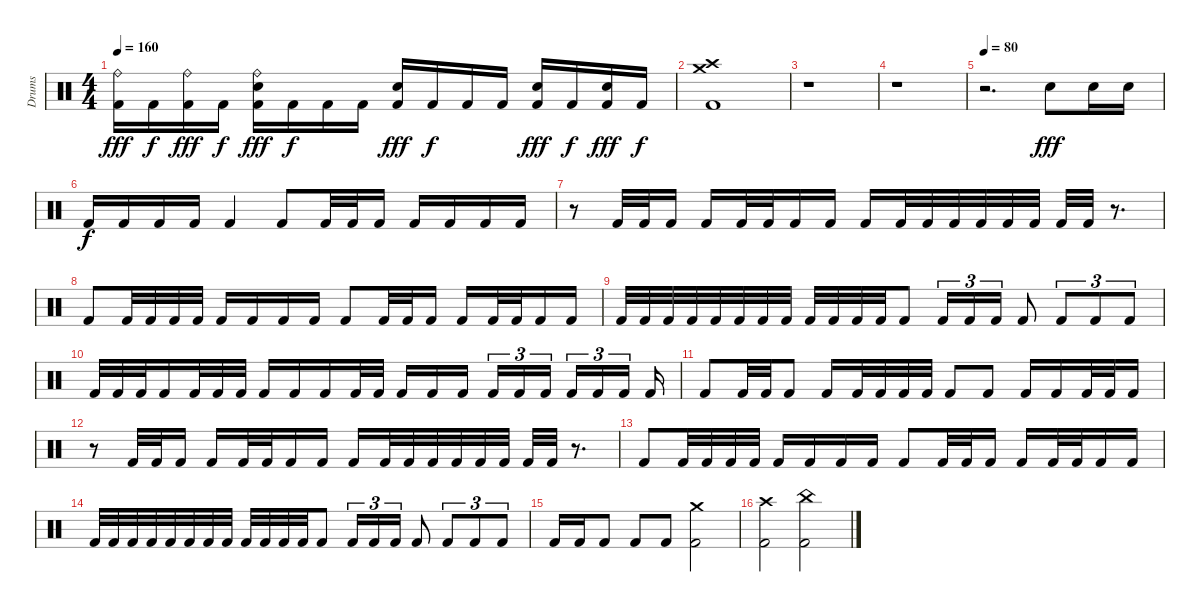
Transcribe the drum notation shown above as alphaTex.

\track ("Drums" "Drums") {instrument percussion}
\staff {score}
\articulation defaults
\ts (4 4)
\tempo 160
\clef neutral
\ks c
("Ride (bell)" "Kick (hit) 2").16{dy fff} "Kick (hit) 2".16{dy f} ("Ride (bell)" "Kick (hit) 2").16{dy fff} "Kick (hit) 2".16{dy f} ("Ride (bell)" "Electric Snare (hit)" "Kick (hit) 2").16{dy fff} "Kick (hit) 2".16{dy f} "Kick (hit) 2".16 "Kick (hit) 2".16 ("Electric Snare (hit)" "Kick (hit) 2").16{dy fff} "Kick (hit) 2".16{dy f} "Kick (hit) 2".16 "Kick (hit) 2".16 ("Electric Snare (hit)" "Kick (hit) 2").16{dy fff} "Kick (hit) 2".16{dy f} ("Electric Snare (hit)" "Kick (hit) 2").16{dy fff} "Kick (hit) 2".16{dy f} |
("Crash high (hit)" "Crash medium (hit)" "Kick (hit) 2").1 |
r.1 |
r.1 |
\tempo 80
r.2{d} "Electric Snare (hit)".8{dy fff} "Electric Snare (hit)".16 "Electric Snare (hit)".16 |
"Kick (hit) 2".16{dy f} "Kick (hit) 2".16 "Kick (hit) 2".16 "Kick (hit) 2".16 "Kick (hit) 2".4 "Kick (hit) 2".8 "Kick (hit) 2".32 "Kick (hit) 2".32 "Kick (hit) 2".16 "Kick (hit) 2".16 "Kick (hit) 2".16 "Kick (hit) 2".16 "Kick (hit) 2".16 |
r.8 "Kick (hit) 2".32 "Kick (hit) 2".32 "Kick (hit) 2".16 "Kick (hit) 2".16 "Kick (hit) 2".32 "Kick (hit) 2".32 "Kick (hit) 2".16 "Kick (hit) 2".16 "Kick (hit) 2".16 "Kick (hit) 2".32 "Kick (hit) 2".32 "Kick (hit) 2".32 "Kick (hit) 2".32 "Kick (hit) 2".32 "Kick (hit) 2".32 "Kick (hit) 2".32 "Kick (hit) 2".32 r.8{d} |
"Kick (hit) 2".8 "Kick (hit) 2".32 "Kick (hit) 2".32 "Kick (hit) 2".32 "Kick (hit) 2".32 "Kick (hit) 2".16 "Kick (hit) 2".16 "Kick (hit) 2".16 "Kick (hit) 2".16 "Kick (hit) 2".8 "Kick (hit) 2".32 "Kick (hit) 2".32 "Kick (hit) 2".16 "Kick (hit) 2".16 "Kick (hit) 2".32 "Kick (hit) 2".32 "Kick (hit) 2".16 "Kick (hit) 2".16 |
"Kick (hit) 2".32 "Kick (hit) 2".32 "Kick (hit) 2".32 "Kick (hit) 2".32 "Kick (hit) 2".32 "Kick (hit) 2".32 "Kick (hit) 2".32 "Kick (hit) 2".32 "Kick (hit) 2".32 "Kick (hit) 2".32 "Kick (hit) 2".32 "Kick (hit) 2".32 "Kick (hit) 2".8 "Kick (hit) 2".16{tu (3 2)} "Kick (hit) 2".16{tu (3 2)} "Kick (hit) 2".16{tu (3 2)} "Kick (hit) 2".8 "Kick (hit) 2".8{tu (3 2)} "Kick (hit) 2".8{tu (3 2)} "Kick (hit) 2".8{tu (3 2)} |
"Kick (hit) 2".32 "Kick (hit) 2".32 "Kick (hit) 2".32 "Kick (hit) 2".16 "Kick (hit) 2".32 "Kick (hit) 2".32 "Kick (hit) 2".32 "Kick (hit) 2".16 "Kick (hit) 2".16 "Kick (hit) 2".16 "Kick (hit) 2".32 "Kick (hit) 2".32 "Kick (hit) 2".16 "Kick (hit) 2".16 "Kick (hit) 2".16 "Kick (hit) 2".16{tu (3 2)} "Kick (hit) 2".16{tu (3 2)} "Kick (hit) 2".16{tu (3 2)} "Kick (hit) 2".16{tu (3 2)} "Kick (hit) 2".16{tu (3 2)} "Kick (hit) 2".16{tu (3 2)} "Kick (hit) 2".16 |
"Kick (hit) 2".8 "Kick (hit) 2".32 "Kick (hit) 2".32 "Kick (hit) 2".8 "Kick (hit) 2".16 "Kick (hit) 2".32 "Kick (hit) 2".32 "Kick (hit) 2".32 "Kick (hit) 2".32 "Kick (hit) 2".8 "Kick (hit) 2".8 "Kick (hit) 2".16 "Kick (hit) 2".16 "Kick (hit) 2".32 "Kick (hit) 2".32 "Kick (hit) 2".16 |
r.8 "Kick (hit) 2".32 "Kick (hit) 2".32 "Kick (hit) 2".16 "Kick (hit) 2".16 "Kick (hit) 2".32 "Kick (hit) 2".32 "Kick (hit) 2".16 "Kick (hit) 2".16 "Kick (hit) 2".16 "Kick (hit) 2".32 "Kick (hit) 2".32 "Kick (hit) 2".32 "Kick (hit) 2".32 "Kick (hit) 2".32 "Kick (hit) 2".32 "Kick (hit) 2".32 "Kick (hit) 2".32 r.8{d} |
"Kick (hit) 2".8 "Kick (hit) 2".32 "Kick (hit) 2".32 "Kick (hit) 2".32 "Kick (hit) 2".32 "Kick (hit) 2".16 "Kick (hit) 2".16 "Kick (hit) 2".16 "Kick (hit) 2".16 "Kick (hit) 2".8 "Kick (hit) 2".32 "Kick (hit) 2".32 "Kick (hit) 2".16 "Kick (hit) 2".16 "Kick (hit) 2".32 "Kick (hit) 2".32 "Kick (hit) 2".16 "Kick (hit) 2".16 |
"Kick (hit) 2".32 "Kick (hit) 2".32 "Kick (hit) 2".32 "Kick (hit) 2".32 "Kick (hit) 2".32 "Kick (hit) 2".32 "Kick (hit) 2".32 "Kick (hit) 2".32 "Kick (hit) 2".32 "Kick (hit) 2".32 "Kick (hit) 2".32 "Kick (hit) 2".32 "Kick (hit) 2".8 "Kick (hit) 2".16{tu (3 2)} "Kick (hit) 2".16{tu (3 2)} "Kick (hit) 2".16{tu (3 2)} "Kick (hit) 2".8 "Kick (hit) 2".8{tu (3 2)} "Kick (hit) 2".8{tu (3 2)} "Kick (hit) 2".8{tu (3 2)} |
"Kick (hit) 2".16 "Kick (hit) 2".16 "Kick (hit) 2".8 "Kick (hit) 2".8 "Kick (hit) 2".8 ("Crash medium (hit)" "Kick (hit) 2").2 |
("Crash high (hit)" "Kick (hit) 2").2 ("China (hit)" "Kick (hit) 2").2
